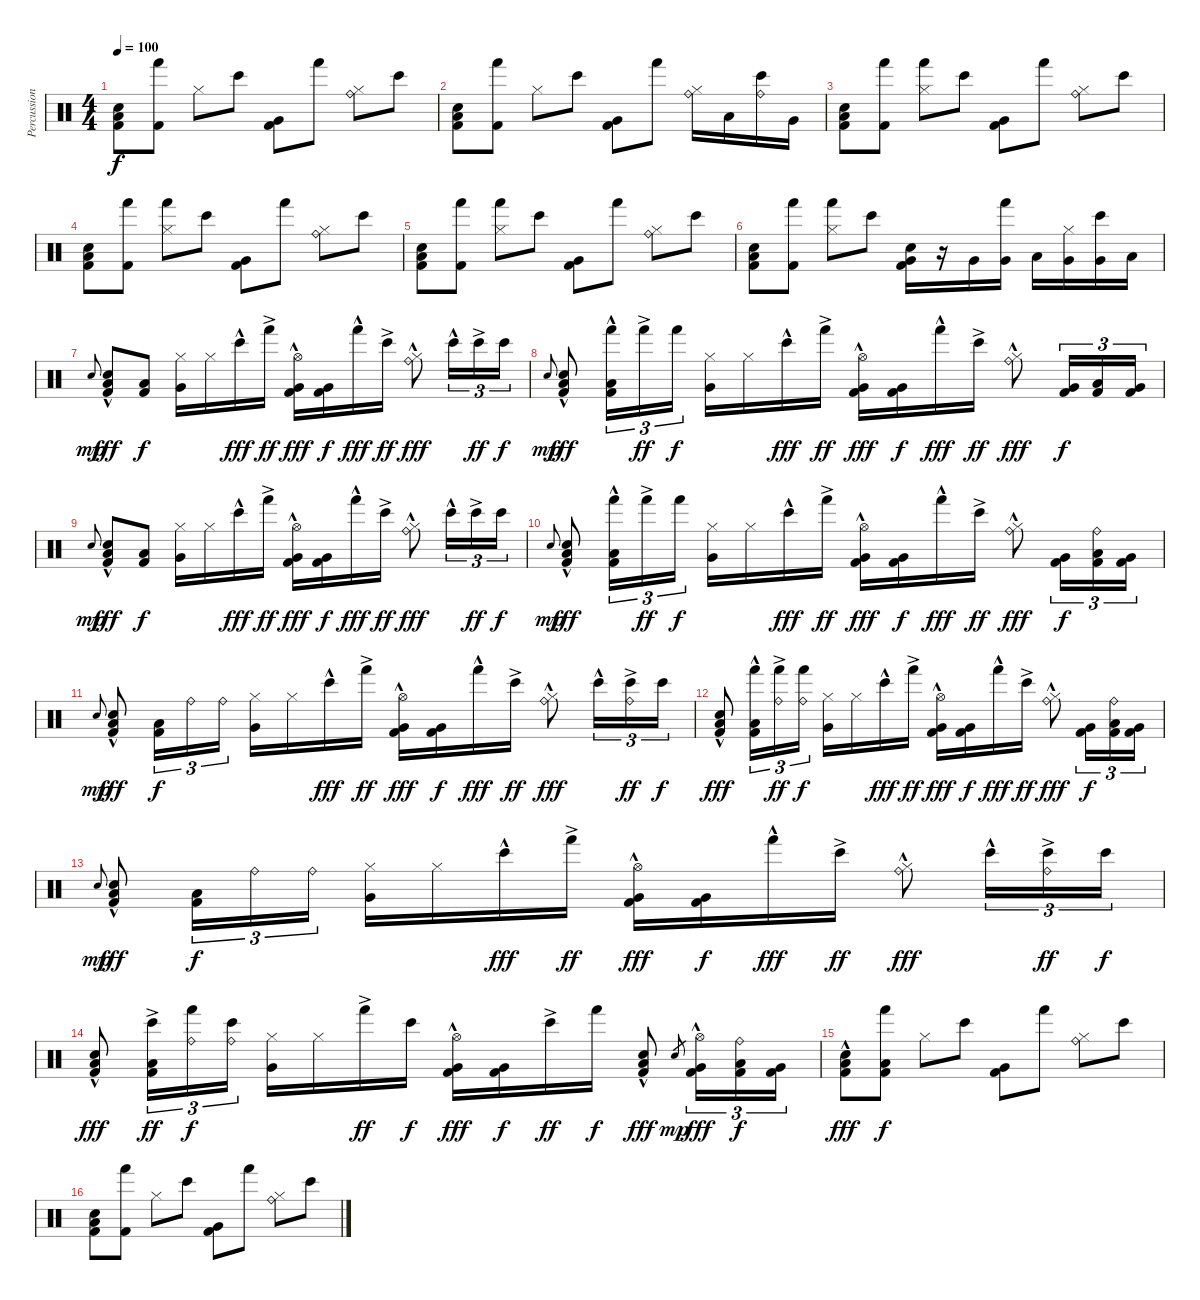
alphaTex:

\track ("Percussion" "Percussion") {instrument percussion}
\staff {score}
\articulation defaults
\ts (4 4)
\tempo 100
\clef neutral
\ks c
("Electric Snare (hit)" "Low Floor Tom (hit)" "Kick (hit) 2").8{dy f} ("Hand (hit)" "Kick (hit) 2").8 "Hi-Hat (closed)".8 "Bongo High (hit)".8 ("Very Low Tom (hit)" "Kick (hit) 2").8 "Hand (hit)".8 ("Hi-Hat (closed)" "Ride (bell)").8 "Bongo High (hit)".8 |
("Electric Snare (hit)" "Low Floor Tom (hit)" "Kick (hit) 2").8 ("Hand (hit)" "Kick (hit) 2").8 "Hi-Hat (closed)".8 "Bongo High (hit)".8 ("Very Low Tom (hit)" "Kick (hit) 2").8 "Hand (hit)".8 ("Hi-Hat (closed)" "Ride (bell)").16 "Low Floor Tom (hit)".16 ("Bongo High (hit)" "Ride (bell)").16 "Very Low Tom (hit)".16 |
("Electric Snare (hit)" "Low Floor Tom (hit)" "Kick (hit) 2").8 ("Hand (hit)" "Kick (hit) 2").8 ("Hi-Hat (closed)" "Hand (hit)").8 "Bongo High (hit)".8 ("Very Low Tom (hit)" "Kick (hit) 2").8 "Hand (hit)".8 ("Hi-Hat (closed)" "Ride (bell)").8 "Bongo High (hit)".8 |
("Electric Snare (hit)" "Low Floor Tom (hit)" "Kick (hit) 2").8 ("Hand (hit)" "Kick (hit) 2").8 ("Hi-Hat (closed)" "Hand (hit)").8 "Bongo High (hit)".8 ("Very Low Tom (hit)" "Kick (hit) 2").8 "Hand (hit)".8 ("Hi-Hat (closed)" "Ride (bell)").8 "Bongo High (hit)".8 |
("Electric Snare (hit)" "Low Floor Tom (hit)" "Kick (hit) 2").8 ("Hand (hit)" "Kick (hit) 2").8 ("Hi-Hat (closed)" "Hand (hit)").8 "Bongo High (hit)".8 ("Very Low Tom (hit)" "Kick (hit) 2").8 "Hand (hit)".8 ("Hi-Hat (closed)" "Ride (bell)").8 "Bongo High (hit)".8 |
("Electric Snare (hit)" "Low Floor Tom (hit)" "Kick (hit) 2").8 ("Hand (hit)" "Kick (hit) 2").8 ("Hi-Hat (closed)" "Hand (hit)").8 "Bongo High (hit)".8 ("Electric Snare (hit)" "Very Low Tom (hit)" "Kick (hit) 2").16 r.16 "Very Low Tom (hit)".16 ("Hand (hit)" "Very Low Tom (hit)").16 "Low Floor Tom (hit)".16 ("Hi-Hat (closed)" "Very Low Tom (hit)").16 ("Bongo High (hit)" "Very Low Tom (hit)").16 "Low Floor Tom (hit)".16 |
"Electric Snare (hit)".8{gr onbeat dy mp} ("Electric Snare (hit)"{hac} "Low Floor Tom (hit)"{hac} "Kick (hit) 2"{hac}).8{dy fff} ("Low Floor Tom (hit)" "Kick (hit) 2").8{dy f} ("Hi-Hat (closed)" "Very Low Tom (hit)").16 "Hi-Hat (closed)".16 "Bongo High (hit)"{hac}.16{dy fff} "Hand (hit)"{ac}.16{dy ff} ("Hi-Hat (open)"{hac} "Very Low Tom (hit)"{hac} "Kick (hit) 2"{hac}).16{dy fff} ("Very Low Tom (hit)" "Kick (hit) 2").16{dy f} "Hand (hit)"{hac}.16{dy fff} "Bongo High (hit)"{ac}.16{dy ff} ("Hi-Hat (closed)" "Ride (bell)"{hac}).8{dy fff} "Bongo High (hit)"{hac}.16{tu (3 2)} "Bongo High (hit)"{ac}.16{tu (3 2) dy ff} "Bongo High (hit)".16{tu (3 2) dy f} |
"Electric Snare (hit)".8{gr onbeat dy mp} ("Electric Snare (hit)"{hac} "Low Floor Tom (hit)"{hac} "Kick (hit) 2"{hac}).8{dy fff} ("Hand (hit)"{hac} "Low Floor Tom (hit)" "Kick (hit) 2").16{tu (3 2)} "Hand (hit)"{ac}.16{tu (3 2) dy ff} "Hand (hit)".16{tu (3 2) dy f} ("Hi-Hat (closed)" "Very Low Tom (hit)").16 "Hi-Hat (closed)".16 "Bongo High (hit)"{hac}.16{dy fff} "Hand (hit)"{ac}.16{dy ff} ("Hi-Hat (open)"{hac} "Very Low Tom (hit)"{hac} "Kick (hit) 2"{hac}).16{dy fff} ("Very Low Tom (hit)" "Kick (hit) 2").16{dy f} "Hand (hit)"{hac}.16{dy fff} "Bongo High (hit)"{ac}.16{dy ff} ("Hi-Hat (closed)" "Ride (bell)"{hac}).8{dy fff} ("Very Low Tom (hit)" "Kick (hit) 2").16{tu (3 2) dy f} ("Low Floor Tom (hit)" "Kick (hit) 2").16{tu (3 2)} ("Very Low Tom (hit)" "Kick (hit) 2").16{tu (3 2)} |
"Electric Snare (hit)".8{gr onbeat dy mp} ("Electric Snare (hit)"{hac} "Low Floor Tom (hit)"{hac} "Kick (hit) 2"{hac}).8{dy fff} ("Low Floor Tom (hit)" "Kick (hit) 2").8{dy f} ("Hi-Hat (closed)" "Very Low Tom (hit)").16 "Hi-Hat (closed)".16 "Bongo High (hit)"{hac}.16{dy fff} "Hand (hit)"{ac}.16{dy ff} ("Hi-Hat (open)"{hac} "Very Low Tom (hit)"{hac} "Kick (hit) 2"{hac}).16{dy fff} ("Very Low Tom (hit)" "Kick (hit) 2").16{dy f} "Hand (hit)"{hac}.16{dy fff} "Bongo High (hit)"{ac}.16{dy ff} ("Hi-Hat (closed)" "Ride (bell)"{hac}).8{dy fff} "Bongo High (hit)"{hac}.16{tu (3 2)} "Bongo High (hit)"{ac}.16{tu (3 2) dy ff} "Bongo High (hit)".16{tu (3 2) dy f} |
"Electric Snare (hit)".8{gr onbeat dy mp} ("Electric Snare (hit)"{hac} "Low Floor Tom (hit)"{hac} "Kick (hit) 2"{hac}).8{dy fff} ("Hand (hit)"{hac} "Low Floor Tom (hit)" "Kick (hit) 2").16{tu (3 2)} "Hand (hit)"{ac}.16{tu (3 2) dy ff} "Hand (hit)".16{tu (3 2) dy f} ("Hi-Hat (closed)" "Very Low Tom (hit)").16 "Hi-Hat (closed)".16 "Bongo High (hit)"{hac}.16{dy fff} "Hand (hit)"{ac}.16{dy ff} ("Hi-Hat (open)"{hac} "Very Low Tom (hit)"{hac} "Kick (hit) 2"{hac}).16{dy fff} ("Very Low Tom (hit)" "Kick (hit) 2").16{dy f} "Hand (hit)"{hac}.16{dy fff} "Bongo High (hit)"{ac}.16{dy ff} ("Hi-Hat (closed)" "Ride (bell)"{hac}).8{dy fff} ("Very Low Tom (hit)" "Kick (hit) 2").16{tu (3 2) dy f} ("Ride (bell)" "Low Floor Tom (hit)" "Kick (hit) 2").16{tu (3 2)} ("Very Low Tom (hit)" "Kick (hit) 2").16{tu (3 2)} |
"Electric Snare (hit)".8{gr onbeat dy mp} ("Electric Snare (hit)"{hac} "Low Floor Tom (hit)"{hac} "Kick (hit) 2"{hac}).8{dy fff} ("Low Floor Tom (hit)" "Kick (hit) 2").16{tu (3 2) dy f} "Ride (bell)".16{tu (3 2)} "Ride (bell)".16{tu (3 2)} ("Hi-Hat (closed)" "Very Low Tom (hit)").16 "Hi-Hat (closed)".16 "Bongo High (hit)"{hac}.16{dy fff} "Hand (hit)"{ac}.16{dy ff} ("Hi-Hat (open)"{hac} "Very Low Tom (hit)"{hac} "Kick (hit) 2"{hac}).16{dy fff} ("Very Low Tom (hit)" "Kick (hit) 2").16{dy f} "Hand (hit)"{hac}.16{dy fff} "Bongo High (hit)"{ac}.16{dy ff} ("Hi-Hat (closed)" "Ride (bell)"{hac}).8{dy fff} "Bongo High (hit)"{hac}.16{tu (3 2)} ("Bongo High (hit)"{ac} "Ride (bell)").16{tu (3 2) dy ff} "Bongo High (hit)".16{tu (3 2) dy f} |
("Electric Snare (hit)"{hac} "Low Floor Tom (hit)"{hac} "Kick (hit) 2"{hac}).8{dy fff} ("Hand (hit)"{hac} "Low Floor Tom (hit)" "Kick (hit) 2").16{tu (3 2)} ("Hand (hit)"{ac} "Ride (bell)").16{tu (3 2) dy ff} ("Hand (hit)" "Ride (bell)").16{tu (3 2) dy f} ("Hi-Hat (closed)" "Very Low Tom (hit)").16 "Hi-Hat (closed)".16 "Bongo High (hit)"{hac}.16{dy fff} "Hand (hit)"{ac}.16{dy ff} ("Hi-Hat (open)"{hac} "Very Low Tom (hit)"{hac} "Kick (hit) 2"{hac}).16{dy fff} ("Very Low Tom (hit)" "Kick (hit) 2").16{dy f} "Hand (hit)"{hac}.16{dy fff} "Bongo High (hit)"{ac}.16{dy ff} ("Hi-Hat (closed)" "Ride (bell)"{hac}).8{dy fff} ("Very Low Tom (hit)" "Kick (hit) 2").16{tu (3 2) dy f} ("Ride (bell)" "Low Floor Tom (hit)" "Kick (hit) 2").16{tu (3 2)} ("Very Low Tom (hit)" "Kick (hit) 2").16{tu (3 2)} |
"Electric Snare (hit)".8{gr onbeat dy mp} ("Electric Snare (hit)"{hac} "Low Floor Tom (hit)"{hac} "Kick (hit) 2"{hac}).8{dy fff} ("Low Floor Tom (hit)" "Kick (hit) 2").16{tu (3 2) dy f} "Ride (bell)".16{tu (3 2)} "Ride (bell)".16{tu (3 2)} ("Hi-Hat (closed)" "Very Low Tom (hit)").16 "Hi-Hat (closed)".16 "Bongo High (hit)"{hac}.16{dy fff} "Hand (hit)"{ac}.16{dy ff} ("Hi-Hat (open)"{hac} "Very Low Tom (hit)"{hac} "Kick (hit) 2"{hac}).16{dy fff} ("Very Low Tom (hit)" "Kick (hit) 2").16{dy f} "Hand (hit)"{hac}.16{dy fff} "Bongo High (hit)"{ac}.16{dy ff} ("Hi-Hat (closed)" "Ride (bell)"{hac}).8{dy fff} "Bongo High (hit)"{hac}.16{tu (3 2)} ("Bongo High (hit)"{ac} "Ride (bell)").16{tu (3 2) dy ff} "Bongo High (hit)".16{tu (3 2) dy f} |
("Electric Snare (hit)"{hac} "Low Floor Tom (hit)"{hac} "Kick (hit) 2"{hac}).8{dy fff} ("Bongo High (hit)"{ac} "Low Floor Tom (hit)" "Kick (hit) 2").16{tu (3 2) dy ff} ("Hand (hit)" "Ride (bell)").16{tu (3 2) dy f} ("Bongo High (hit)" "Ride (bell)").16{tu (3 2)} ("Hi-Hat (closed)" "Very Low Tom (hit)").16 "Hi-Hat (closed)".16 "Hand (hit)"{ac}.16{dy ff} "Bongo High (hit)".16{dy f} ("Hi-Hat (open)"{hac} "Very Low Tom (hit)"{hac} "Kick (hit) 2"{hac}).16{dy fff} ("Very Low Tom (hit)" "Kick (hit) 2").16{dy f} "Bongo High (hit)"{ac}.16{dy ff} "Hand (hit)".16{dy f} ("Electric Snare (hit)"{hac} "Low Floor Tom (hit)"{hac} "Kick (hit) 2"{hac}).8{dy fff} "Electric Snare (hit)".8{gr dy mp} ("Hi-Hat (open)"{hac} "Very Low Tom (hit)"{hac} "Kick (hit) 2"{hac}).16{tu (3 2) dy fff} ("Ride (bell)" "Low Floor Tom (hit)" "Kick (hit) 2").16{tu (3 2) dy f} ("Very Low Tom (hit)" "Kick (hit) 2").16{tu (3 2)} |
("Electric Snare (hit)"{hac} "Low Floor Tom (hit)"{hac} "Kick (hit) 2"{hac}).8{dy fff} ("Hand (hit)" "Low Floor Tom (hit)" "Kick (hit) 2").8{dy f} "Hi-Hat (closed)".8 "Bongo High (hit)".8 ("Very Low Tom (hit)" "Kick (hit) 2").8 "Hand (hit)".8 ("Hi-Hat (closed)" "Ride (bell)").8 "Bongo High (hit)".8 |
("Electric Snare (hit)" "Low Floor Tom (hit)" "Kick (hit) 2").8 ("Hand (hit)" "Kick (hit) 2").8 "Hi-Hat (closed)".8 "Bongo High (hit)".8 ("Very Low Tom (hit)" "Kick (hit) 2").8 "Hand (hit)".8 ("Hi-Hat (closed)" "Ride (bell)").8 "Bongo High (hit)".8
